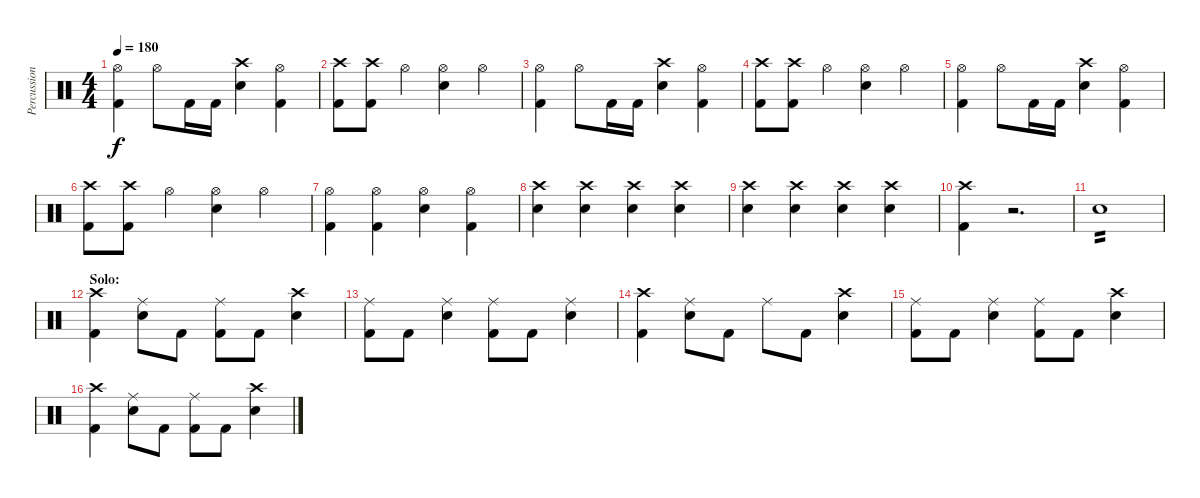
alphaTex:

\track ("Percussion" "Percussion") {instrument percussion}
\staff {score}
\articulation defaults
\ts (4 4)
\tempo 180
\clef neutral
\ks c
("Hi-Hat (open)" "Kick (hit) 2").4{dy f} "Hi-Hat (open)".8 "Kick (hit) 2".16 "Kick (hit) 2".16 ("Crash high (hit)" "Snare (hit) 2").4 ("Hi-Hat (open)" "Kick (hit) 2").4 |
("Crash high (hit)" "Kick (hit) 2").8 ("Crash high (hit)" "Kick (hit) 2").8 "Hi-Hat (open)".4 ("Hi-Hat (open)" "Snare (hit) 2").4 "Hi-Hat (open)".4 |
("Hi-Hat (open)" "Kick (hit) 2").4 "Hi-Hat (open)".8 "Kick (hit) 2".16 "Kick (hit) 2".16 ("Crash high (hit)" "Snare (hit) 2").4 ("Hi-Hat (open)" "Kick (hit) 2").4 |
("Crash high (hit)" "Kick (hit) 2").8 ("Crash high (hit)" "Kick (hit) 2").8 "Hi-Hat (open)".4 ("Hi-Hat (open)" "Snare (hit) 2").4 "Hi-Hat (open)".4 |
("Hi-Hat (open)" "Kick (hit) 2").4 "Hi-Hat (open)".8 "Kick (hit) 2".16 "Kick (hit) 2".16 ("Crash high (hit)" "Snare (hit) 2").4 ("Hi-Hat (open)" "Kick (hit) 2").4 |
("Crash high (hit)" "Kick (hit) 2").8 ("Crash high (hit)" "Kick (hit) 2").8 "Hi-Hat (open)".4 ("Hi-Hat (open)" "Snare (hit) 2").4 "Hi-Hat (open)".4 |
("Hi-Hat (open)" "Kick (hit) 2").4 ("Hi-Hat (open)" "Kick (hit) 2").4 ("Hi-Hat (open)" "Snare (hit) 2").4 ("Hi-Hat (open)" "Kick (hit) 2").4 |
("Crash high (hit)" "Snare (hit) 2").4 ("Crash high (hit)" "Snare (hit) 2").4 ("Crash high (hit)" "Snare (hit) 2").4 ("Crash high (hit)" "Snare (hit) 2").4 |
("Crash high (hit)" "Snare (hit) 2").4 ("Crash high (hit)" "Snare (hit) 2").4 ("Crash high (hit)" "Snare (hit) 2").4 ("Crash high (hit)" "Snare (hit) 2").4 |
("Crash high (hit)" "Kick (hit) 2").4 r.2{d} |
"Snare (hit) 2".1{tp 2} |
\section ("" "Solo:")
("Crash high (hit)" "Kick (hit) 2").4 ("Ride (middle)" "Snare (hit) 2").8 "Kick (hit) 2".8 ("Ride (middle)" "Kick (hit) 2").8 "Kick (hit) 2".8 ("Crash high (hit)" "Snare (hit) 2").4 |
("Ride (middle)" "Kick (hit) 2").8 "Kick (hit) 2".8 ("Ride (middle)" "Snare (hit) 2").4 ("Ride (middle)" "Kick (hit) 2").8 "Kick (hit) 2".8 ("Ride (middle)" "Snare (hit) 2").4 |
("Crash high (hit)" "Kick (hit) 2").4 ("Ride (middle)" "Snare (hit) 2").8 "Kick (hit) 2".8 "Ride (middle)".8 "Kick (hit) 2".8 ("Crash high (hit)" "Snare (hit) 2").4 |
("Ride (middle)" "Kick (hit) 2").8 "Kick (hit) 2".8 ("Ride (middle)" "Snare (hit) 2").4 ("Ride (middle)" "Kick (hit) 2").8 "Kick (hit) 2".8 ("Crash high (hit)" "Snare (hit) 2").4 |
("Crash high (hit)" "Kick (hit) 2").4 ("Ride (middle)" "Snare (hit) 2").8 "Kick (hit) 2".8 ("Ride (middle)" "Kick (hit) 2").8 "Kick (hit) 2".8 ("Crash high (hit)" "Snare (hit) 2").4
